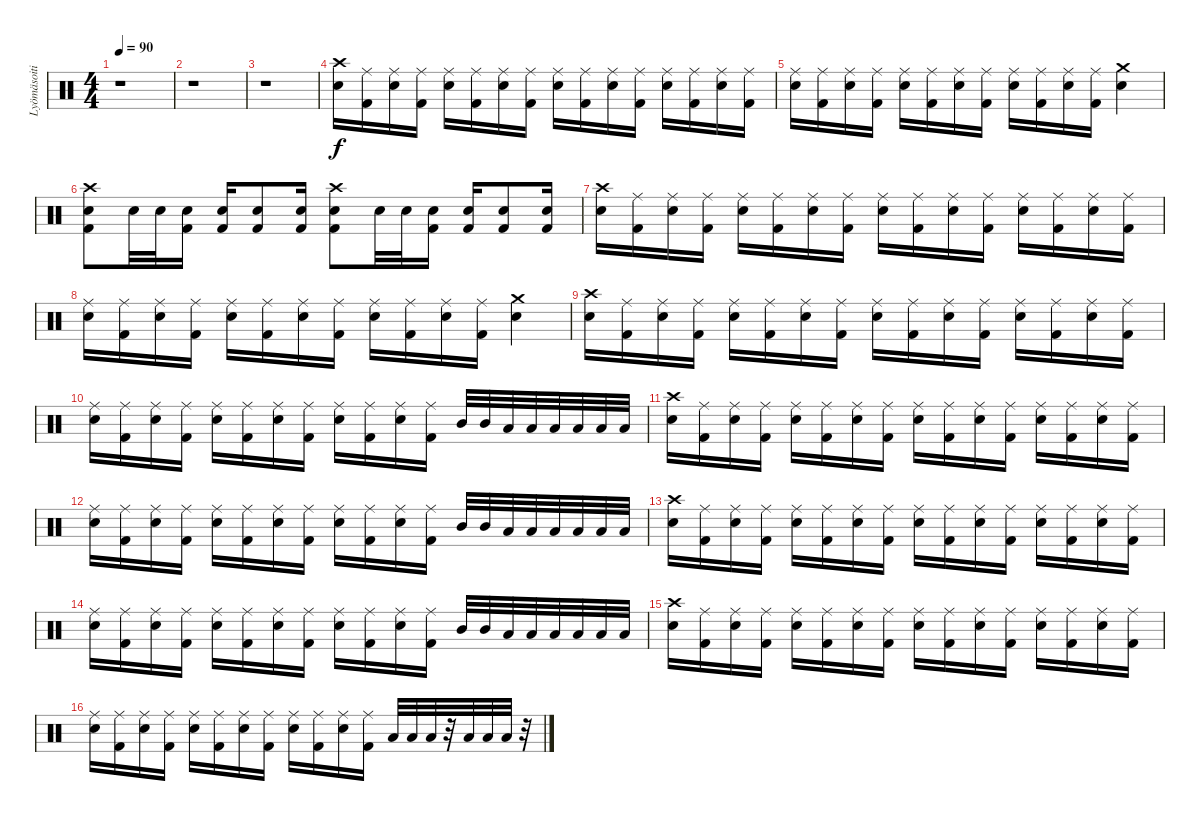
\track ("Lyömäsoitin" "Lyömäsoiti") {instrument percussion}
\staff {score}
\articulation defaults
\ts (4 4)
\tempo 90
\clef neutral
\ks c
r.1{dy f} |
r.1 |
r.1 |
("Crash high (hit)" "Snare (hit) 2").16 ("Ride (middle)" "Kick (hit) 2").16 ("Ride (middle)" "Snare (hit) 2").16 ("Ride (middle)" "Kick (hit) 2").16 ("Ride (middle)" "Snare (hit) 2").16 ("Ride (middle)" "Kick (hit) 2").16 ("Ride (middle)" "Snare (hit) 2").16 ("Ride (middle)" "Kick (hit) 2").16 ("Ride (middle)" "Snare (hit) 2").16 ("Ride (middle)" "Kick (hit) 2").16 ("Ride (middle)" "Snare (hit) 2").16 ("Ride (middle)" "Kick (hit) 2").16 ("Ride (middle)" "Snare (hit) 2").16 ("Ride (middle)" "Kick (hit) 2").16 ("Ride (middle)" "Snare (hit) 2").16 ("Ride (middle)" "Kick (hit) 2").16 |
("Ride (middle)" "Snare (hit) 2").16 ("Ride (middle)" "Kick (hit) 2").16 ("Ride (middle)" "Snare (hit) 2").16 ("Ride (middle)" "Kick (hit) 2").16 ("Ride (middle)" "Snare (hit) 2").16 ("Ride (middle)" "Kick (hit) 2").16 ("Ride (middle)" "Snare (hit) 2").16 ("Ride (middle)" "Kick (hit) 2").16 ("Ride (middle)" "Snare (hit) 2").16 ("Ride (middle)" "Kick (hit) 2").16 ("Ride (middle)" "Snare (hit) 2").16 ("Ride (middle)" "Kick (hit) 2").16 ("Crash medium (hit)" "Snare (hit) 2").4 |
("Crash high (hit)" "Snare (hit) 2" "Kick (hit) 2").8 "Snare (hit) 2".32 "Snare (hit) 2".32 ("Snare (hit) 2" "Kick (hit) 2").16 ("Snare (hit) 2" "Kick (hit) 2").16 ("Snare (hit) 2" "Kick (hit) 2").8 ("Snare (hit) 2" "Kick (hit) 2").16 ("Crash high (hit)" "Snare (hit) 2" "Kick (hit) 2").8 "Snare (hit) 2".32 "Snare (hit) 2".32 ("Snare (hit) 2" "Kick (hit) 2").16 ("Snare (hit) 2" "Kick (hit) 2").16 ("Snare (hit) 2" "Kick (hit) 2").8 ("Snare (hit) 2" "Kick (hit) 2").16 |
("Crash high (hit)" "Snare (hit) 2").16 ("Ride (middle)" "Kick (hit) 2").16 ("Ride (middle)" "Snare (hit) 2").16 ("Ride (middle)" "Kick (hit) 2").16 ("Ride (middle)" "Snare (hit) 2").16 ("Ride (middle)" "Kick (hit) 2").16 ("Ride (middle)" "Snare (hit) 2").16 ("Ride (middle)" "Kick (hit) 2").16 ("Ride (middle)" "Snare (hit) 2").16 ("Ride (middle)" "Kick (hit) 2").16 ("Ride (middle)" "Snare (hit) 2").16 ("Ride (middle)" "Kick (hit) 2").16 ("Ride (middle)" "Snare (hit) 2").16 ("Ride (middle)" "Kick (hit) 2").16 ("Ride (middle)" "Snare (hit) 2").16 ("Ride (middle)" "Kick (hit) 2").16 |
("Ride (middle)" "Snare (hit) 2").16 ("Ride (middle)" "Kick (hit) 2").16 ("Ride (middle)" "Snare (hit) 2").16 ("Ride (middle)" "Kick (hit) 2").16 ("Ride (middle)" "Snare (hit) 2").16 ("Ride (middle)" "Kick (hit) 2").16 ("Ride (middle)" "Snare (hit) 2").16 ("Ride (middle)" "Kick (hit) 2").16 ("Ride (middle)" "Snare (hit) 2").16 ("Ride (middle)" "Kick (hit) 2").16 ("Ride (middle)" "Snare (hit) 2").16 ("Ride (middle)" "Kick (hit) 2").16 ("Crash medium (hit)" "Snare (hit) 2").4 |
("Crash high (hit)" "Snare (hit) 2").16 ("Ride (middle)" "Kick (hit) 2").16 ("Ride (middle)" "Snare (hit) 2").16 ("Ride (middle)" "Kick (hit) 2").16 ("Ride (middle)" "Snare (hit) 2").16 ("Ride (middle)" "Kick (hit) 2").16 ("Ride (middle)" "Snare (hit) 2").16 ("Ride (middle)" "Kick (hit) 2").16 ("Ride (middle)" "Snare (hit) 2").16 ("Ride (middle)" "Kick (hit) 2").16 ("Ride (middle)" "Snare (hit) 2").16 ("Ride (middle)" "Kick (hit) 2").16 ("Ride (middle)" "Snare (hit) 2").16 ("Ride (middle)" "Kick (hit) 2").16 ("Ride (middle)" "Snare (hit) 2").16 ("Ride (middle)" "Kick (hit) 2").16 |
("Ride (middle)" "Snare (hit) 2").16 ("Ride (middle)" "Kick (hit) 2").16 ("Ride (middle)" "Snare (hit) 2").16 ("Ride (middle)" "Kick (hit) 2").16 ("Ride (middle)" "Snare (hit) 2").16 ("Ride (middle)" "Kick (hit) 2").16 ("Ride (middle)" "Snare (hit) 2").16 ("Ride (middle)" "Kick (hit) 2").16 ("Ride (middle)" "Snare (hit) 2").16 ("Ride (middle)" "Kick (hit) 2").16 ("Ride (middle)" "Snare (hit) 2").16 ("Ride (middle)" "Kick (hit) 2").16 "Mid Tom (hit)".32 "Mid Tom (hit)".32 "Low Tom (hit)".32 "Low Tom (hit)".32 "Low Floor Tom (hit)".32 "Low Floor Tom (hit)".32 "Low Floor Tom (hit)".32 "Low Floor Tom (hit)".32 |
("Crash high (hit)" "Snare (hit) 2").16 ("Ride (middle)" "Kick (hit) 2").16 ("Ride (middle)" "Snare (hit) 2").16 ("Ride (middle)" "Kick (hit) 2").16 ("Ride (middle)" "Snare (hit) 2").16 ("Ride (middle)" "Kick (hit) 2").16 ("Ride (middle)" "Snare (hit) 2").16 ("Ride (middle)" "Kick (hit) 2").16 ("Ride (middle)" "Snare (hit) 2").16 ("Ride (middle)" "Kick (hit) 2").16 ("Ride (middle)" "Snare (hit) 2").16 ("Ride (middle)" "Kick (hit) 2").16 ("Ride (middle)" "Snare (hit) 2").16 ("Ride (middle)" "Kick (hit) 2").16 ("Ride (middle)" "Snare (hit) 2").16 ("Ride (middle)" "Kick (hit) 2").16 |
("Ride (middle)" "Snare (hit) 2").16 ("Ride (middle)" "Kick (hit) 2").16 ("Ride (middle)" "Snare (hit) 2").16 ("Ride (middle)" "Kick (hit) 2").16 ("Ride (middle)" "Snare (hit) 2").16 ("Ride (middle)" "Kick (hit) 2").16 ("Ride (middle)" "Snare (hit) 2").16 ("Ride (middle)" "Kick (hit) 2").16 ("Ride (middle)" "Snare (hit) 2").16 ("Ride (middle)" "Kick (hit) 2").16 ("Ride (middle)" "Snare (hit) 2").16 ("Ride (middle)" "Kick (hit) 2").16 "Mid Tom (hit)".32 "Mid Tom (hit)".32 "Low Tom (hit)".32 "Low Tom (hit)".32 "Low Floor Tom (hit)".32 "Low Floor Tom (hit)".32 "Low Floor Tom (hit)".32 "Low Floor Tom (hit)".32 |
("Crash high (hit)" "Snare (hit) 2").16 ("Ride (middle)" "Kick (hit) 2").16 ("Ride (middle)" "Snare (hit) 2").16 ("Ride (middle)" "Kick (hit) 2").16 ("Ride (middle)" "Snare (hit) 2").16 ("Ride (middle)" "Kick (hit) 2").16 ("Ride (middle)" "Snare (hit) 2").16 ("Ride (middle)" "Kick (hit) 2").16 ("Ride (middle)" "Snare (hit) 2").16 ("Ride (middle)" "Kick (hit) 2").16 ("Ride (middle)" "Snare (hit) 2").16 ("Ride (middle)" "Kick (hit) 2").16 ("Ride (middle)" "Snare (hit) 2").16 ("Ride (middle)" "Kick (hit) 2").16 ("Ride (middle)" "Snare (hit) 2").16 ("Ride (middle)" "Kick (hit) 2").16 |
("Ride (middle)" "Snare (hit) 2").16 ("Ride (middle)" "Kick (hit) 2").16 ("Ride (middle)" "Snare (hit) 2").16 ("Ride (middle)" "Kick (hit) 2").16 ("Ride (middle)" "Snare (hit) 2").16 ("Ride (middle)" "Kick (hit) 2").16 ("Ride (middle)" "Snare (hit) 2").16 ("Ride (middle)" "Kick (hit) 2").16 ("Ride (middle)" "Snare (hit) 2").16 ("Ride (middle)" "Kick (hit) 2").16 ("Ride (middle)" "Snare (hit) 2").16 ("Ride (middle)" "Kick (hit) 2").16 "Mid Tom (hit)".32 "Mid Tom (hit)".32 "Low Tom (hit)".32 "Low Tom (hit)".32 "Low Floor Tom (hit)".32 "Low Floor Tom (hit)".32 "Low Floor Tom (hit)".32 "Low Floor Tom (hit)".32 |
("Crash high (hit)" "Snare (hit) 2").16 ("Ride (middle)" "Kick (hit) 2").16 ("Ride (middle)" "Snare (hit) 2").16 ("Ride (middle)" "Kick (hit) 2").16 ("Ride (middle)" "Snare (hit) 2").16 ("Ride (middle)" "Kick (hit) 2").16 ("Ride (middle)" "Snare (hit) 2").16 ("Ride (middle)" "Kick (hit) 2").16 ("Ride (middle)" "Snare (hit) 2").16 ("Ride (middle)" "Kick (hit) 2").16 ("Ride (middle)" "Snare (hit) 2").16 ("Ride (middle)" "Kick (hit) 2").16 ("Ride (middle)" "Snare (hit) 2").16 ("Ride (middle)" "Kick (hit) 2").16 ("Ride (middle)" "Snare (hit) 2").16 ("Ride (middle)" "Kick (hit) 2").16 |
("Ride (middle)" "Snare (hit) 2").16 ("Ride (middle)" "Kick (hit) 2").16 ("Ride (middle)" "Snare (hit) 2").16 ("Ride (middle)" "Kick (hit) 2").16 ("Ride (middle)" "Snare (hit) 2").16 ("Ride (middle)" "Kick (hit) 2").16 ("Ride (middle)" "Snare (hit) 2").16 ("Ride (middle)" "Kick (hit) 2").16 ("Ride (middle)" "Snare (hit) 2").16 ("Ride (middle)" "Kick (hit) 2").16 ("Ride (middle)" "Snare (hit) 2").16 ("Ride (middle)" "Kick (hit) 2").16 "Low Tom (hit)".32 "Low Tom (hit)".32 "Low Tom (hit)".32 r.32 "Low Tom (hit)".32 "Low Tom (hit)".32 "Low Tom (hit)".32 r.32
